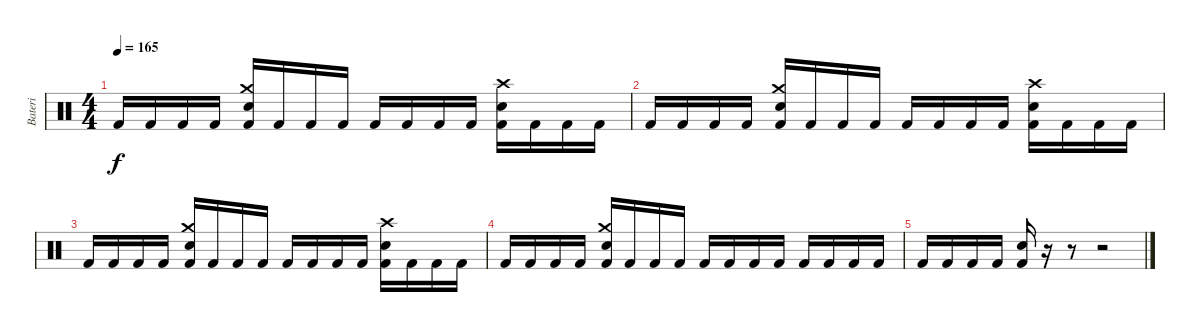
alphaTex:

\track ("Bateri" "Bateri") {instrument percussion}
\staff {score}
\articulation defaults
\ts (4 4)
\tempo 165
\clef neutral
\ks c "Kick (hit) 2".16{dy f} "Kick (hit) 2".16 "Kick (hit) 2".16 "Kick (hit) 2".16
("Crash medium (hit)" "Snare (hit) 2" "Kick (hit) 2").16 "Kick (hit) 2".16 "Kick (hit) 2".16 "Kick (hit) 2".16 "Kick (hit) 2".16 "Kick (hit) 2".16 "Kick (hit) 2".16 "Kick (hit) 2".16 ("Crash high (hit)" "Snare (hit) 2" "Kick (hit) 2").16 "Kick (hit) 2".16 "Kick (hit) 2".16 "Kick (hit) 2".16 |
"Kick (hit) 2".16 "Kick (hit) 2".16 "Kick (hit) 2".16 "Kick (hit) 2".16 ("Crash medium (hit)" "Snare (hit) 2" "Kick (hit) 2").16 "Kick (hit) 2".16 "Kick (hit) 2".16 "Kick (hit) 2".16 "Kick (hit) 2".16 "Kick (hit) 2".16 "Kick (hit) 2".16 "Kick (hit) 2".16 ("Crash high (hit)" "Snare (hit) 2" "Kick (hit) 2").16 "Kick (hit) 2".16 "Kick (hit) 2".16 "Kick (hit) 2".16 |
"Kick (hit) 2".16 "Kick (hit) 2".16 "Kick (hit) 2".16 "Kick (hit) 2".16 ("Crash medium (hit)" "Snare (hit) 2" "Kick (hit) 2").16 "Kick (hit) 2".16 "Kick (hit) 2".16 "Kick (hit) 2".16 "Kick (hit) 2".16 "Kick (hit) 2".16 "Kick (hit) 2".16 "Kick (hit) 2".16 ("Crash high (hit)" "Snare (hit) 2" "Kick (hit) 2").16 "Kick (hit) 2".16 "Kick (hit) 2".16 "Kick (hit) 2".16 |
"Kick (hit) 2".16 "Kick (hit) 2".16 "Kick (hit) 2".16 "Kick (hit) 2".16 ("Crash medium (hit)" "Snare (hit) 2" "Kick (hit) 2").16 "Kick (hit) 2".16 "Kick (hit) 2".16 "Kick (hit) 2".16 "Kick (hit) 2".16 "Kick (hit) 2".16 "Kick (hit) 2".16 "Kick (hit) 2".16 "Kick (hit) 2".16 "Kick (hit) 2".16 "Kick (hit) 2".16 "Kick (hit) 2".16 |
"Kick (hit) 2".16 "Kick (hit) 2".16 "Kick (hit) 2".16 "Kick (hit) 2".16 ("Snare (hit) 2" "Kick (hit) 2").16 r.16 r.8 r.2
